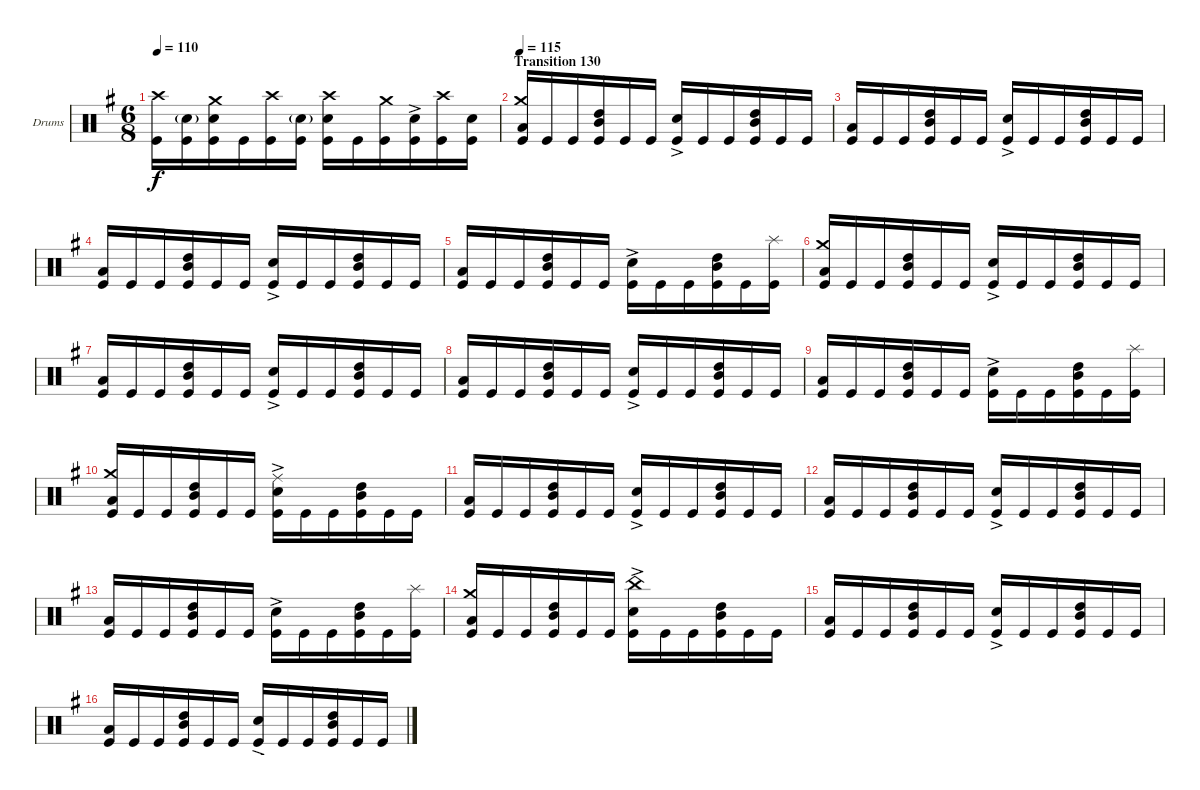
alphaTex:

\bracketExtendMode groupsimilarinstruments
\firstSystemTrackNameOrientation horizontal
\otherSystemsTrackNameOrientation horizontal
\track ("Drumkit" "Drums") {instrument percussion}
\staff {score}
\articulation defaults
\ts (6 8)
\tempo 110
\clef neutral
\ks eminor
("Kick (hit)" "Crash high (hit)").16{dy f} ("Kick (hit)" "Snare (hit) 2"{g}).16 ("Kick (hit)" "Snare (hit) 2" "Crash medium (hit)").16 "Kick (hit)".16 ("Kick (hit)" "Crash high (hit)").16 ("Kick (hit)" "Snare (hit) 2"{g}).16 ("Kick (hit)" "Snare (hit) 2" "Crash high (hit)").16 "Kick (hit)".16 ("Kick (hit)" "Crash medium (hit)").16 ("Kick (hit)" "Snare (hit) 2"{ac}).16 ("Kick (hit)" "Crash high (hit)").16 ("Kick (hit)" "Snare (hit) 2").16 |
\section ("" "Transition 130")
\tempo 115
("Kick (hit)" "Low Tom (hit)" "Crash medium (hit)").16 "Kick (hit)".16 "Kick (hit)".16 ("Kick (hit)" "Mid Tom (hit)" "High Tom (hit)").16 "Kick (hit)".16 "Kick (hit)".16 ("Kick (hit)" "Snare (hit) 2"{ac}).16 "Kick (hit)".16 "Kick (hit)".16 ("Kick (hit)" "Mid Tom (hit)" "High Tom (hit)").16 "Kick (hit)".16 "Kick (hit)".16 |
("Kick (hit)" "Low Tom (hit)").16 "Kick (hit)".16 "Kick (hit)".16 ("Kick (hit)" "Mid Tom (hit)" "High Tom (hit)").16 "Kick (hit)".16 "Kick (hit)".16 ("Kick (hit)" "Snare (hit) 2"{ac}).16 "Kick (hit)".16 "Kick (hit)".16 ("Kick (hit)" "Mid Tom (hit)" "High Tom (hit)").16 "Kick (hit)".16 "Kick (hit)".16 |
("Kick (hit)" "Low Tom (hit)").16 "Kick (hit)".16 "Kick (hit)".16 ("Kick (hit)" "Mid Tom (hit)" "High Tom (hit)").16 "Kick (hit)".16 "Kick (hit)".16 ("Kick (hit)" "Snare (hit) 2"{ac}).16 "Kick (hit)".16 "Kick (hit)".16 ("Kick (hit)" "Mid Tom (hit)" "High Tom (hit)").16 "Kick (hit)".16 "Kick (hit)".16 |
("Kick (hit)" "Low Tom (hit)").16 "Kick (hit)".16 "Kick (hit)".16 ("Kick (hit)" "Mid Tom (hit)" "High Tom (hit)").16 "Kick (hit)".16 "Kick (hit)".16 ("Kick (hit)" "Snare (hit) 2"{ac}).16 "Kick (hit)".16 "Kick (hit)".16 ("Kick (hit)" "Mid Tom (hit)" "High Tom (hit)").16 "Kick (hit)".16 ("Kick (hit)" "Splash (hit)").16 |
("Kick (hit)" "Low Tom (hit)" "Crash medium (hit)").16 "Kick (hit)".16 "Kick (hit)".16 ("Kick (hit)" "Mid Tom (hit)" "High Tom (hit)").16 "Kick (hit)".16 "Kick (hit)".16 ("Kick (hit)" "Snare (hit) 2"{ac}).16 "Kick (hit)".16 "Kick (hit)".16 ("Kick (hit)" "Mid Tom (hit)" "High Tom (hit)").16 "Kick (hit)".16 "Kick (hit)".16 |
("Kick (hit)" "Low Tom (hit)").16 "Kick (hit)".16 "Kick (hit)".16 ("Kick (hit)" "Mid Tom (hit)" "High Tom (hit)").16 "Kick (hit)".16 "Kick (hit)".16 ("Kick (hit)" "Snare (hit) 2"{ac}).16 "Kick (hit)".16 "Kick (hit)".16 ("Kick (hit)" "Mid Tom (hit)" "High Tom (hit)").16 "Kick (hit)".16 "Kick (hit)".16 |
("Kick (hit)" "Low Tom (hit)").16 "Kick (hit)".16 "Kick (hit)".16 ("Kick (hit)" "Mid Tom (hit)" "High Tom (hit)").16 "Kick (hit)".16 "Kick (hit)".16 ("Kick (hit)" "Snare (hit) 2"{ac}).16 "Kick (hit)".16 "Kick (hit)".16 ("Kick (hit)" "Mid Tom (hit)" "High Tom (hit)").16 "Kick (hit)".16 "Kick (hit)".16 |
("Kick (hit)" "Low Tom (hit)").16 "Kick (hit)".16 "Kick (hit)".16 ("Kick (hit)" "Mid Tom (hit)" "High Tom (hit)").16 "Kick (hit)".16 "Kick (hit)".16 ("Kick (hit)" "Snare (hit) 2"{ac}).16 "Kick (hit)".16 "Kick (hit)".16 ("Kick (hit)" "Mid Tom (hit)" "High Tom (hit)").16 "Kick (hit)".16 ("Kick (hit)" "Splash (hit)").16 |
("Kick (hit)" "Low Tom (hit)" "Crash medium (hit)").16 "Kick (hit)".16 "Kick (hit)".16 ("Kick (hit)" "Mid Tom (hit)" "High Tom (hit)").16 "Kick (hit)".16 "Kick (hit)".16 ("Kick (hit)" "Snare (hit) 2"{ac} "Ride (middle)").16 "Kick (hit)".16 "Kick (hit)".16 ("Kick (hit)" "Mid Tom (hit)" "High Tom (hit)").16 "Kick (hit)".16 "Kick (hit)".16 |
("Kick (hit)" "Low Tom (hit)").16 "Kick (hit)".16 "Kick (hit)".16 ("Kick (hit)" "Mid Tom (hit)" "High Tom (hit)").16 "Kick (hit)".16 "Kick (hit)".16 ("Kick (hit)" "Snare (hit) 2"{ac}).16 "Kick (hit)".16 "Kick (hit)".16 ("Kick (hit)" "Mid Tom (hit)" "High Tom (hit)").16 "Kick (hit)".16 "Kick (hit)".16 |
("Kick (hit)" "Low Tom (hit)").16 "Kick (hit)".16 "Kick (hit)".16 ("Kick (hit)" "Mid Tom (hit)" "High Tom (hit)").16 "Kick (hit)".16 "Kick (hit)".16 ("Kick (hit)" "Snare (hit) 2"{ac}).16 "Kick (hit)".16 "Kick (hit)".16 ("Kick (hit)" "Mid Tom (hit)" "High Tom (hit)").16 "Kick (hit)".16 "Kick (hit)".16 |
("Kick (hit)" "Low Tom (hit)").16 "Kick (hit)".16 "Kick (hit)".16 ("Kick (hit)" "Mid Tom (hit)" "High Tom (hit)").16 "Kick (hit)".16 "Kick (hit)".16 ("Kick (hit)" "Snare (hit) 2"{ac}).16 "Kick (hit)".16 "Kick (hit)".16 ("Kick (hit)" "Mid Tom (hit)" "High Tom (hit)").16 "Kick (hit)".16 ("Kick (hit)" "Splash (hit)").16 |
("Kick (hit)" "Low Tom (hit)" "Crash medium (hit)").16 "Kick (hit)".16 "Kick (hit)".16 ("Kick (hit)" "Mid Tom (hit)" "High Tom (hit)").16 "Kick (hit)".16 "Kick (hit)".16 ("Kick (hit)" "Snare (hit) 2"{ac} "China (hit)").16 "Kick (hit)".16 "Kick (hit)".16 ("Kick (hit)" "Mid Tom (hit)" "High Tom (hit)").16 "Kick (hit)".16 "Kick (hit)".16 |
("Kick (hit)" "Low Tom (hit)").16 "Kick (hit)".16 "Kick (hit)".16 ("Kick (hit)" "Mid Tom (hit)" "High Tom (hit)").16 "Kick (hit)".16 "Kick (hit)".16 ("Kick (hit)" "Snare (hit) 2"{ac}).16 "Kick (hit)".16 "Kick (hit)".16 ("Kick (hit)" "Mid Tom (hit)" "High Tom (hit)").16 "Kick (hit)".16 "Kick (hit)".16 |
("Kick (hit)" "Low Tom (hit)").16 "Kick (hit)".16 "Kick (hit)".16 ("Kick (hit)" "Mid Tom (hit)" "High Tom (hit)").16 "Kick (hit)".16 "Kick (hit)".16 ("Kick (hit)" "Snare (hit) 2"{ac}).16 "Kick (hit)".16 "Kick (hit)".16 ("Kick (hit)" "Mid Tom (hit)" "High Tom (hit)").16 "Kick (hit)".16 "Kick (hit)".16
